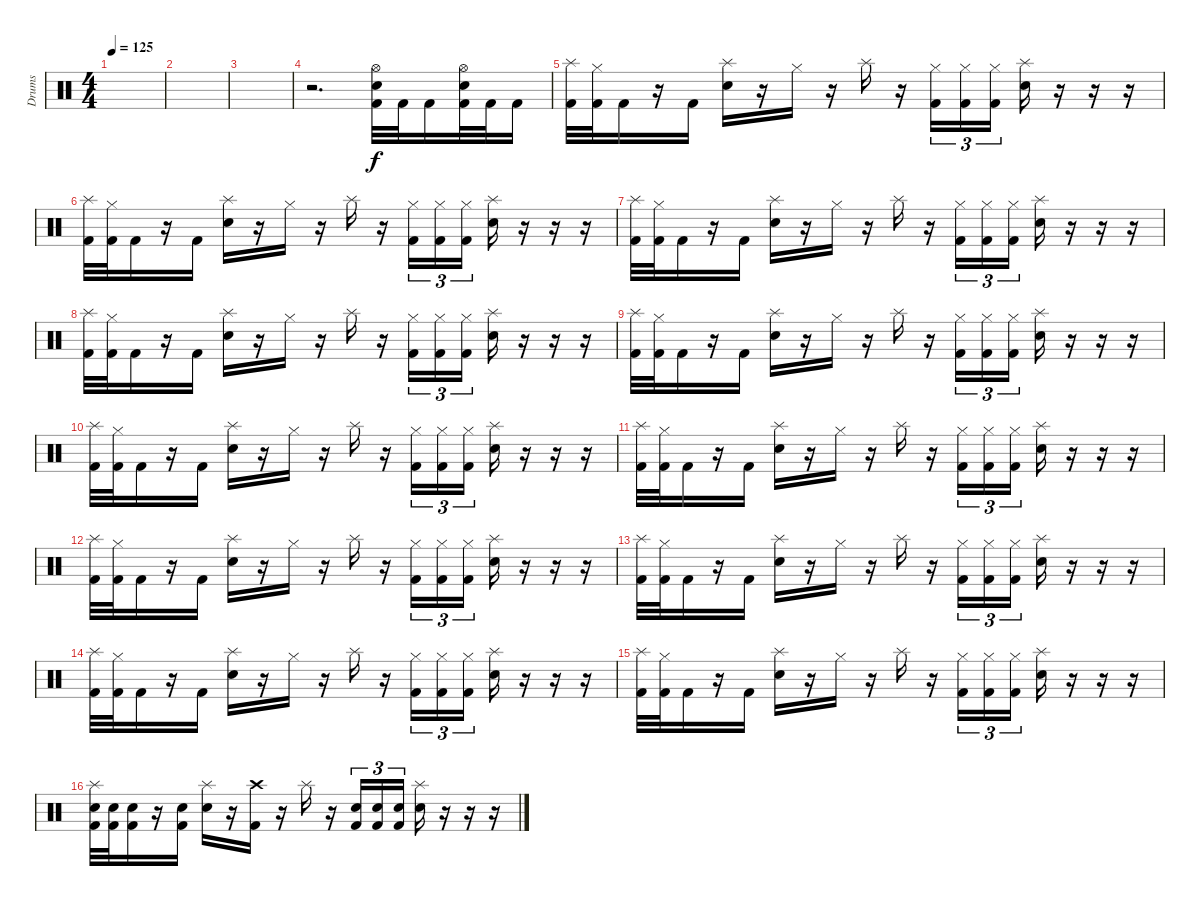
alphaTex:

\track ("Drums" "Drums") {instrument percussion}
\staff {score}
\articulation defaults
\ts (4 4)
\tempo 125
\clef neutral
\ks c
|
|
|
r.2{d} ("Hi-Hat (open)" "Snare (hit) 2" "Kick (hit) 2").32 "Kick (hit) 2".32 "Kick (hit) 2".16 ("Hi-Hat (open)" "Snare (hit) 2" "Kick (hit) 2").32 "Kick (hit) 2".32 "Kick (hit) 2".16 |
("Splash (hit)" "Kick (hit) 2").32 ("Hi-Hat (closed)" "Kick (hit) 2").32 "Kick (hit) 2".16 r.16 "Kick (hit) 2".16 ("Splash (hit)" "Snare (hit) 2").16 r.16 "Hi-Hat (closed)".16 r.16 "Splash (hit)".16 r.16 ("Hi-Hat (closed)" "Kick (hit) 2").16{tu (3 2)} ("Hi-Hat (closed)" "Kick (hit) 2").16{tu (3 2)} ("Hi-Hat (closed)" "Kick (hit) 2").16{tu (3 2)} ("Splash (hit)" "Snare (hit) 2").16 r.16 r.16 r.16 |
("Splash (hit)" "Kick (hit) 2").32 ("Hi-Hat (closed)" "Kick (hit) 2").32 "Kick (hit) 2".16 r.16 "Kick (hit) 2".16 ("Splash (hit)" "Snare (hit) 2").16 r.16 "Hi-Hat (closed)".16 r.16 "Splash (hit)".16 r.16 ("Hi-Hat (closed)" "Kick (hit) 2").16{tu (3 2)} ("Hi-Hat (closed)" "Kick (hit) 2").16{tu (3 2)} ("Hi-Hat (closed)" "Kick (hit) 2").16{tu (3 2)} ("Splash (hit)" "Snare (hit) 2").16 r.16 r.16 r.16 |
("Splash (hit)" "Kick (hit) 2").32 ("Hi-Hat (closed)" "Kick (hit) 2").32 "Kick (hit) 2".16 r.16 "Kick (hit) 2".16 ("Splash (hit)" "Snare (hit) 2").16 r.16 "Hi-Hat (closed)".16 r.16 "Splash (hit)".16 r.16 ("Hi-Hat (closed)" "Kick (hit) 2").16{tu (3 2)} ("Hi-Hat (closed)" "Kick (hit) 2").16{tu (3 2)} ("Hi-Hat (closed)" "Kick (hit) 2").16{tu (3 2)} ("Splash (hit)" "Snare (hit) 2").16 r.16 r.16 r.16 |
("Splash (hit)" "Kick (hit) 2").32 ("Hi-Hat (closed)" "Kick (hit) 2").32 "Kick (hit) 2".16 r.16 "Kick (hit) 2".16 ("Splash (hit)" "Snare (hit) 2").16 r.16 "Hi-Hat (closed)".16 r.16 "Splash (hit)".16 r.16 ("Hi-Hat (closed)" "Kick (hit) 2").16{tu (3 2)} ("Hi-Hat (closed)" "Kick (hit) 2").16{tu (3 2)} ("Hi-Hat (closed)" "Kick (hit) 2").16{tu (3 2)} ("Splash (hit)" "Snare (hit) 2").16 r.16 r.16 r.16 |
("Splash (hit)" "Kick (hit) 2").32 ("Hi-Hat (closed)" "Kick (hit) 2").32 "Kick (hit) 2".16 r.16 "Kick (hit) 2".16 ("Splash (hit)" "Snare (hit) 2").16 r.16 "Hi-Hat (closed)".16 r.16 "Splash (hit)".16 r.16 ("Hi-Hat (closed)" "Kick (hit) 2").16{tu (3 2)} ("Hi-Hat (closed)" "Kick (hit) 2").16{tu (3 2)} ("Hi-Hat (closed)" "Kick (hit) 2").16{tu (3 2)} ("Splash (hit)" "Snare (hit) 2").16 r.16 r.16 r.16 |
("Splash (hit)" "Kick (hit) 2").32 ("Hi-Hat (closed)" "Kick (hit) 2").32 "Kick (hit) 2".16 r.16 "Kick (hit) 2".16 ("Splash (hit)" "Snare (hit) 2").16 r.16 "Hi-Hat (closed)".16 r.16 "Splash (hit)".16 r.16 ("Hi-Hat (closed)" "Kick (hit) 2").16{tu (3 2)} ("Hi-Hat (closed)" "Kick (hit) 2").16{tu (3 2)} ("Hi-Hat (closed)" "Kick (hit) 2").16{tu (3 2)} ("Splash (hit)" "Snare (hit) 2").16 r.16 r.16 r.16 |
("Splash (hit)" "Kick (hit) 2").32 ("Hi-Hat (closed)" "Kick (hit) 2").32 "Kick (hit) 2".16 r.16 "Kick (hit) 2".16 ("Splash (hit)" "Snare (hit) 2").16 r.16 "Hi-Hat (closed)".16 r.16 "Splash (hit)".16 r.16 ("Hi-Hat (closed)" "Kick (hit) 2").16{tu (3 2)} ("Hi-Hat (closed)" "Kick (hit) 2").16{tu (3 2)} ("Hi-Hat (closed)" "Kick (hit) 2").16{tu (3 2)} ("Splash (hit)" "Snare (hit) 2").16 r.16 r.16 r.16 |
("Splash (hit)" "Kick (hit) 2").32 ("Hi-Hat (closed)" "Kick (hit) 2").32 "Kick (hit) 2".16 r.16 "Kick (hit) 2".16 ("Splash (hit)" "Snare (hit) 2").16 r.16 "Hi-Hat (closed)".16 r.16 "Splash (hit)".16 r.16 ("Hi-Hat (closed)" "Kick (hit) 2").16{tu (3 2)} ("Hi-Hat (closed)" "Kick (hit) 2").16{tu (3 2)} ("Hi-Hat (closed)" "Kick (hit) 2").16{tu (3 2)} ("Splash (hit)" "Snare (hit) 2").16 r.16 r.16 r.16 |
("Splash (hit)" "Kick (hit) 2").32 ("Hi-Hat (closed)" "Kick (hit) 2").32 "Kick (hit) 2".16 r.16 "Kick (hit) 2".16 ("Splash (hit)" "Snare (hit) 2").16 r.16 "Hi-Hat (closed)".16 r.16 "Splash (hit)".16 r.16 ("Hi-Hat (closed)" "Kick (hit) 2").16{tu (3 2)} ("Hi-Hat (closed)" "Kick (hit) 2").16{tu (3 2)} ("Hi-Hat (closed)" "Kick (hit) 2").16{tu (3 2)} ("Splash (hit)" "Snare (hit) 2").16 r.16 r.16 r.16 |
("Splash (hit)" "Kick (hit) 2").32 ("Hi-Hat (closed)" "Kick (hit) 2").32 "Kick (hit) 2".16 r.16 "Kick (hit) 2".16 ("Splash (hit)" "Snare (hit) 2").16 r.16 "Hi-Hat (closed)".16 r.16 "Splash (hit)".16 r.16 ("Hi-Hat (closed)" "Kick (hit) 2").16{tu (3 2)} ("Hi-Hat (closed)" "Kick (hit) 2").16{tu (3 2)} ("Hi-Hat (closed)" "Kick (hit) 2").16{tu (3 2)} ("Splash (hit)" "Snare (hit) 2").16 r.16 r.16 r.16 |
("Splash (hit)" "Kick (hit) 2").32 ("Hi-Hat (closed)" "Kick (hit) 2").32 "Kick (hit) 2".16 r.16 "Kick (hit) 2".16 ("Splash (hit)" "Snare (hit) 2").16 r.16 "Hi-Hat (closed)".16 r.16 "Splash (hit)".16 r.16 ("Hi-Hat (closed)" "Kick (hit) 2").16{tu (3 2)} ("Hi-Hat (closed)" "Kick (hit) 2").16{tu (3 2)} ("Hi-Hat (closed)" "Kick (hit) 2").16{tu (3 2)} ("Splash (hit)" "Snare (hit) 2").16 r.16 r.16 r.16 |
("Splash (hit)" "Snare (hit) 2" "Kick (hit) 2").32 ("Snare (hit) 2" "Kick (hit) 2").32 ("Snare (hit) 2" "Kick (hit) 2").16 r.16 ("Snare (hit) 2" "Kick (hit) 2").16 ("Splash (hit)" "Snare (hit) 2").16 r.16 ("Crash high (hit)" "Kick (hit) 2").16 r.16 "Splash (hit)".16 r.16 ("Snare (hit) 2" "Kick (hit) 2").16{tu (3 2)} ("Snare (hit) 2" "Kick (hit) 2").16{tu (3 2)} ("Snare (hit) 2" "Kick (hit) 2").16{tu (3 2)} ("Splash (hit)" "Snare (hit) 2").16 r.16 r.16 r.16
